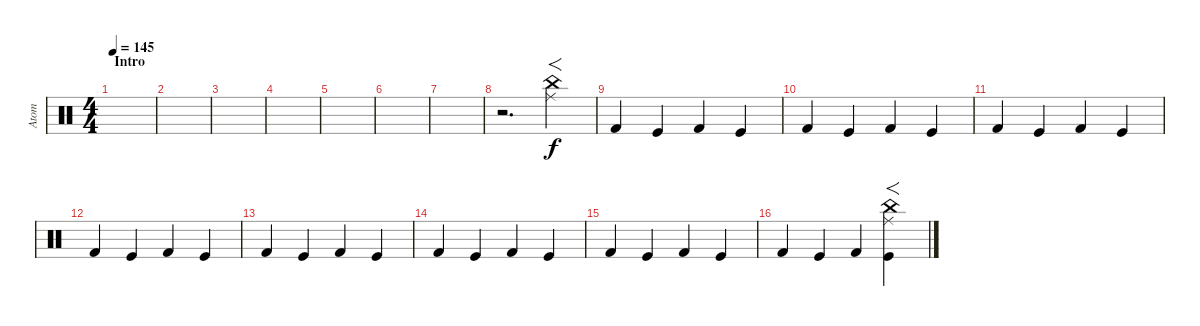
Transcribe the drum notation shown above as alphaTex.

\track ("Atom" "Atom") {instrument percussion}
\staff {score}
\articulation defaults
\ts (4 4)
\section ("" "Intro")
\tempo 145
\clef neutral
\ks c
|
|
|
|
|
|
|
r.2{d} ("China (hit)" "Ride (middle)").4{f} |
"Kick (hit) 2".4 "Kick (hit)".4 "Kick (hit) 2".4 "Kick (hit)".4 |
"Kick (hit) 2".4 "Kick (hit)".4 "Kick (hit) 2".4 "Kick (hit)".4 |
"Kick (hit) 2".4 "Kick (hit)".4 "Kick (hit) 2".4 "Kick (hit)".4 |
"Kick (hit) 2".4 "Kick (hit)".4 "Kick (hit) 2".4 "Kick (hit)".4 |
"Kick (hit) 2".4 "Kick (hit)".4 "Kick (hit) 2".4 "Kick (hit)".4 |
"Kick (hit) 2".4 "Kick (hit)".4 "Kick (hit) 2".4 "Kick (hit)".4 |
"Kick (hit) 2".4 "Kick (hit)".4 "Kick (hit) 2".4 "Kick (hit)".4 |
"Kick (hit) 2".4 "Kick (hit)".4 "Kick (hit) 2".4 ("China (hit)" "Ride (middle)" "Kick (hit)").4{f}
